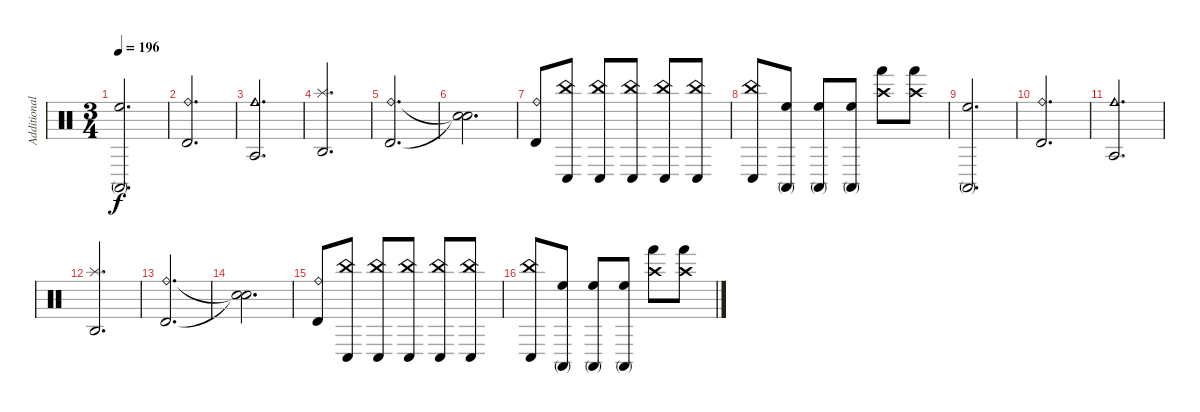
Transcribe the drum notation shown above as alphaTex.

\track ("Additional" "Additional") {instrument percussion}
\staff {score}
\articulation defaults
\ts (3 4)
\tempo 196
\clef neutral
\ks c
("Conga high (mute)" "High Floor Tom (hit)").2{d dy f} |
("Timbale high (hit)" "Ride (bell)").2{d} |
("Agogo tow (hit)" "Cowbell medium (hit)").2{d} |
("Agogo high (hit)" "Splash (hit)").2{d} |
("Timbale high (hit)" "Ride (bell)").2{d} |
("Snare (hit)"{t} "Snare (hit)"{t}).2{d} |
("Timbale high (hit)" "Ride (bell)").8 ("Conga low (hit)" "China (hit)").8 ("Conga low (hit)" "China (hit)").8 ("Conga low (hit)" "China (hit)").8 ("Conga low (hit)" "China (hit)").8 ("Conga low (hit)" "China (hit)").8 |
("Conga low (hit)" "China (hit)").8 ("Conga high (mute)" "High Floor Tom (hit)").8 ("Conga high (mute)" "High Floor Tom (hit)").8 ("Conga high (mute)" "High Floor Tom (hit)").8 ("Hand (hit)" "Crash high (hit)").8 ("Hand (hit)" "Crash high (hit)").8 |
("Conga high (mute)" "High Floor Tom (hit)").2{d} |
("Timbale high (hit)" "Ride (bell)").2{d} |
("Agogo tow (hit)" "Cowbell medium (hit)").2{d} |
("Agogo high (hit)" "Splash (hit)").2{d} |
("Timbale high (hit)" "Ride (bell)").2{d} |
("Snare (hit)"{t} "Snare (hit)"{t}).2{d} |
("Timbale high (hit)" "Ride (bell)").8 ("Conga low (hit)" "China (hit)").8 ("Conga low (hit)" "China (hit)").8 ("Conga low (hit)" "China (hit)").8 ("Conga low (hit)" "China (hit)").8 ("Conga low (hit)" "China (hit)").8 |
("Conga low (hit)" "China (hit)").8 ("Conga high (mute)" "High Floor Tom (hit)").8 ("Conga high (mute)" "High Floor Tom (hit)").8 ("Conga high (mute)" "High Floor Tom (hit)").8 ("Hand (hit)" "Crash high (hit)").8 ("Hand (hit)" "Crash high (hit)").8
